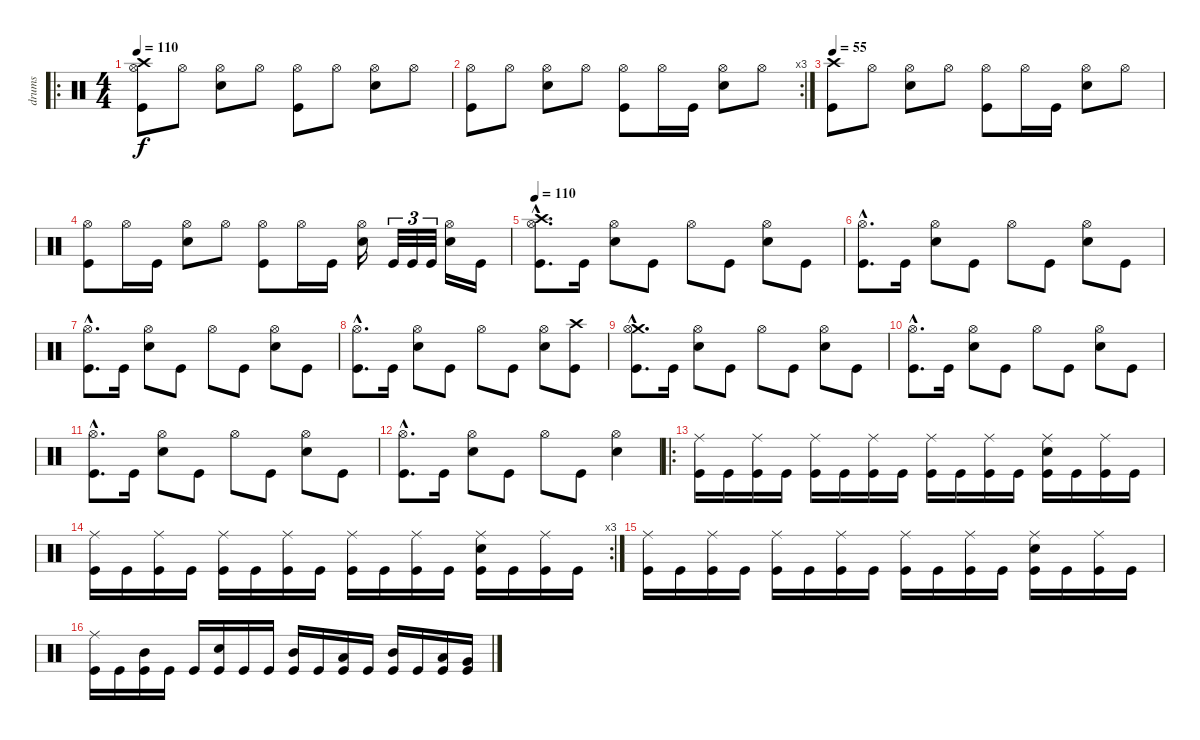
\track ("drums" "drums") {instrument percussion}
\staff {score}
\articulation defaults
\ro
\ts (4 4)
\tempo 110
\tempo 55
\tempo 110
\clef neutral
\ks c
("Crash high (hit)" "Hi-Hat (open)" "Kick (hit)").8{dy f} "Hi-Hat (open)".8 ("Hi-Hat (open)" "Snare (hit) 2").8 "Hi-Hat (open)".8 ("Hi-Hat (open)" "Kick (hit)").8 "Hi-Hat (open)".8 ("Hi-Hat (open)" "Snare (hit) 2").8 "Hi-Hat (open)".8 |
\rc 3
("Hi-Hat (open)" "Kick (hit)").8 "Hi-Hat (open)".8 ("Hi-Hat (open)" "Snare (hit) 2").8 "Hi-Hat (open)".8 ("Hi-Hat (open)" "Kick (hit)").8 "Hi-Hat (open)".16 "Kick (hit)".16 ("Hi-Hat (open)" "Snare (hit) 2").8 "Hi-Hat (open)".8 |
\tempo 55
("Crash high (hit)" "Kick (hit)").8 "Hi-Hat (open)".8 ("Hi-Hat (open)" "Snare (hit) 2").8 "Hi-Hat (open)".8 ("Hi-Hat (open)" "Kick (hit)").8 "Hi-Hat (open)".16 "Kick (hit)".16 ("Hi-Hat (open)" "Snare (hit) 2").8 "Hi-Hat (open)".8 |
("Hi-Hat (open)" "Kick (hit)").8 "Hi-Hat (open)".16 "Kick (hit)".16 ("Hi-Hat (open)" "Snare (hit) 2").8 "Hi-Hat (open)".8 ("Hi-Hat (open)" "Kick (hit)").8 "Hi-Hat (open)".16 "Kick (hit)".16 ("Hi-Hat (open)" "Snare (hit) 2").16 "Kick (hit)".32{tu (3 2)} "Kick (hit)".32{tu (3 2)} "Kick (hit)".32{tu (3 2)} ("Hi-Hat (open)" "Snare (hit) 2").16 "Kick (hit)".16 |
\tempo 110
("Crash high (hit)"{hac} "Hi-Hat (open)"{hac} "Kick (hit)"{hac}).8{d} "Kick (hit)".16 ("Hi-Hat (open)" "Snare (hit) 2").8 "Kick (hit)".8 "Hi-Hat (open)".8 "Kick (hit)".8 ("Hi-Hat (open)" "Snare (hit) 2").8 "Kick (hit)".8 |
("Hi-Hat (open)"{hac} "Kick (hit)"{hac}).8{d} "Kick (hit)".16 ("Hi-Hat (open)" "Snare (hit) 2").8 "Kick (hit)".8 "Hi-Hat (open)".8 "Kick (hit)".8 ("Hi-Hat (open)" "Snare (hit) 2").8 "Kick (hit)".8 |
("Hi-Hat (open)"{hac} "Kick (hit)"{hac}).8{d} "Kick (hit)".16 ("Hi-Hat (open)" "Snare (hit) 2").8 "Kick (hit)".8 "Hi-Hat (open)".8 "Kick (hit)".8 ("Hi-Hat (open)" "Snare (hit) 2").8 "Kick (hit)".8 |
("Hi-Hat (open)"{hac} "Kick (hit)"{hac}).8{d} "Kick (hit)".16 ("Hi-Hat (open)" "Snare (hit) 2").8 "Kick (hit)".8 "Hi-Hat (open)".8 "Kick (hit)".8 ("Hi-Hat (open)" "Snare (hit) 2").8 ("Crash high (hit)" "Kick (hit)").8 |
("Crash medium (hit)"{hac} "Hi-Hat (open)"{hac} "Kick (hit)"{hac}).8{d} "Kick (hit)".16 ("Hi-Hat (open)" "Snare (hit) 2").8 "Kick (hit)".8 "Hi-Hat (open)".8 "Kick (hit)".8 ("Hi-Hat (open)" "Snare (hit) 2").8 "Kick (hit)".8 |
("Hi-Hat (open)"{hac} "Kick (hit)"{hac}).8{d} "Kick (hit)".16 ("Hi-Hat (open)" "Snare (hit) 2").8 "Kick (hit)".8 "Hi-Hat (open)".8 "Kick (hit)".8 ("Hi-Hat (open)" "Snare (hit) 2").8 "Kick (hit)".8 |
("Hi-Hat (open)"{hac} "Kick (hit)"{hac}).8{d} "Kick (hit)".16 ("Hi-Hat (open)" "Snare (hit) 2").8 "Kick (hit)".8 "Hi-Hat (open)".8 "Kick (hit)".8 ("Hi-Hat (open)" "Snare (hit) 2").8 "Kick (hit)".8 |
("Hi-Hat (open)"{hac} "Kick (hit)"{hac}).8{d} "Kick (hit)".16 ("Hi-Hat (open)" "Snare (hit) 2").8 "Kick (hit)".8 "Hi-Hat (open)".8 "Kick (hit)".8 ("Hi-Hat (open)" "Snare (hit) 2").4 |
\ro
("Ride (middle)" "Kick (hit)").16 "Kick (hit)".16 ("Ride (middle)" "Kick (hit)").16 "Kick (hit)".16 ("Ride (middle)" "Kick (hit)").16 "Kick (hit)".16 ("Ride (middle)" "Kick (hit)").16 "Kick (hit)".16 ("Ride (middle)" "Kick (hit)").16 "Kick (hit)".16 ("Ride (middle)" "Kick (hit)").16 "Kick (hit)".16 ("Snare (hit) 2" "Ride (middle)" "Kick (hit)").16 "Kick (hit)".16 ("Ride (middle)" "Kick (hit)").16 "Kick (hit)".16 |
\rc 3
("Ride (middle)" "Kick (hit)").16 "Kick (hit)".16 ("Ride (middle)" "Kick (hit)").16 "Kick (hit)".16 ("Ride (middle)" "Kick (hit)").16 "Kick (hit)".16 ("Ride (middle)" "Kick (hit)").16 "Kick (hit)".16 ("Ride (middle)" "Kick (hit)").16 "Kick (hit)".16 ("Ride (middle)" "Kick (hit)").16 "Kick (hit)".16 ("Snare (hit) 2" "Ride (middle)" "Kick (hit)").16 "Kick (hit)".16 ("Ride (middle)" "Kick (hit)").16 "Kick (hit)".16 |
("Ride (middle)" "Kick (hit)").16 "Kick (hit)".16 ("Ride (middle)" "Kick (hit)").16 "Kick (hit)".16 ("Ride (middle)" "Kick (hit)").16 "Kick (hit)".16 ("Ride (middle)" "Kick (hit)").16 "Kick (hit)".16 ("Ride (middle)" "Kick (hit)").16 "Kick (hit)".16 ("Ride (middle)" "Kick (hit)").16 "Kick (hit)".16 ("Snare (hit) 2" "Ride (middle)" "Kick (hit)").16 "Kick (hit)".16 ("Ride (middle)" "Kick (hit)").16 "Kick (hit)".16 |
("Ride (middle)" "Kick (hit)").16 "Kick (hit)".16 ("Mid Tom (hit)" "Kick (hit)").16 "Kick (hit)".16 "Kick (hit)".16 ("Snare (hit) 2" "Kick (hit)").16 "Kick (hit)".16 "Kick (hit)".16 ("Mid Tom (hit)" "Kick (hit)").16 "Kick (hit)".16 ("Low Tom (hit)" "Kick (hit)").16 "Kick (hit)".16 ("Mid Tom (hit)" "Kick (hit)").16 "Kick (hit)".16 ("Low Tom (hit)" "Kick (hit)").16 ("Very Low Tom (hit)" "Kick (hit)").16
